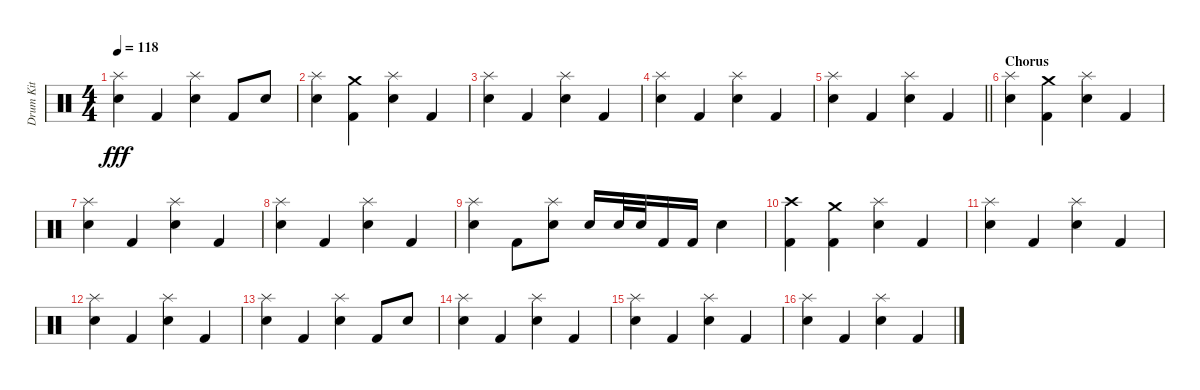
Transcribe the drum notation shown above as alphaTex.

\track ("Drum Kit" "Drum Kit") {instrument percussion}
\staff {score}
\articulation defaults
\ts (4 4)
\tempo 118
\clef neutral
\ks c
("Splash (hit)" "Electric Snare (hit)").4{dy fff} "Kick (hit) 2".4 ("Splash (hit)" "Electric Snare (hit)").4 "Kick (hit) 2".8 "Electric Snare (hit)".8 |
("Splash (hit)" "Electric Snare (hit)").4 ("Crash medium (hit)" "Kick (hit) 2").4 ("Electric Snare (hit)" "Splash (hit)").4 "Kick (hit) 2".4 |
("Splash (hit)" "Electric Snare (hit)").4 "Kick (hit) 2".4 ("Electric Snare (hit)" "Splash (hit)").4 "Kick (hit) 2".4 |
("Electric Snare (hit)" "Splash (hit)").4 "Kick (hit) 2".4 ("Electric Snare (hit)" "Splash (hit)").4 "Kick (hit) 2".4 |
\barLineRight lightlight
("Splash (hit)" "Electric Snare (hit)").4 "Kick (hit) 2".4 ("Electric Snare (hit)" "Splash (hit)").4 "Kick (hit) 2".4 |
\section ("" "Chorus")
("Electric Snare (hit)" "Splash (hit)").4 ("Kick (hit) 2" "Crash medium (hit)").4 ("Electric Snare (hit)" "Splash (hit)").4 "Kick (hit) 2".4 |
("Splash (hit)" "Electric Snare (hit)").4 "Kick (hit) 2".4 ("Electric Snare (hit)" "Splash (hit)").4 "Kick (hit) 2".4 |
("Electric Snare (hit)" "Splash (hit)").4 "Kick (hit) 2".4 ("Electric Snare (hit)" "Splash (hit)").4 "Kick (hit) 2".4 |
("Electric Snare (hit)" "Splash (hit)").4 "Kick (hit) 2".8 ("Splash (hit)" "Electric Snare (hit)").8 "Electric Snare (hit)".16 "Electric Snare (hit)".32 "Electric Snare (hit)".32 "Kick (hit) 2".16 "Kick (hit) 2".16 "Electric Snare (hit)".4 |
("Crash high (hit)" "Kick (hit) 2").4 ("Kick (hit) 2" "Crash medium (hit)").4 ("Splash (hit)" "Electric Snare (hit)").4 "Kick (hit) 2".4 |
("Electric Snare (hit)" "Splash (hit)").4 "Kick (hit) 2".4 ("Electric Snare (hit)" "Splash (hit)").4 "Kick (hit) 2".4 |
("Electric Snare (hit)" "Splash (hit)").4 "Kick (hit) 2".4 ("Electric Snare (hit)" "Splash (hit)").4 "Kick (hit) 2".4 |
("Splash (hit)" "Electric Snare (hit)").4 "Kick (hit) 2".4 ("Splash (hit)" "Electric Snare (hit)").4 "Kick (hit) 2".8 "Electric Snare (hit)".8 |
("Electric Snare (hit)" "Splash (hit)").4 "Kick (hit) 2".4 ("Electric Snare (hit)" "Splash (hit)").4 "Kick (hit) 2".4 |
("Splash (hit)" "Electric Snare (hit)").4 "Kick (hit) 2".4 ("Electric Snare (hit)" "Splash (hit)").4 "Kick (hit) 2".4 |
("Electric Snare (hit)" "Splash (hit)").4 "Kick (hit) 2".4 ("Splash (hit)" "Electric Snare (hit)").4 "Kick (hit) 2".4
